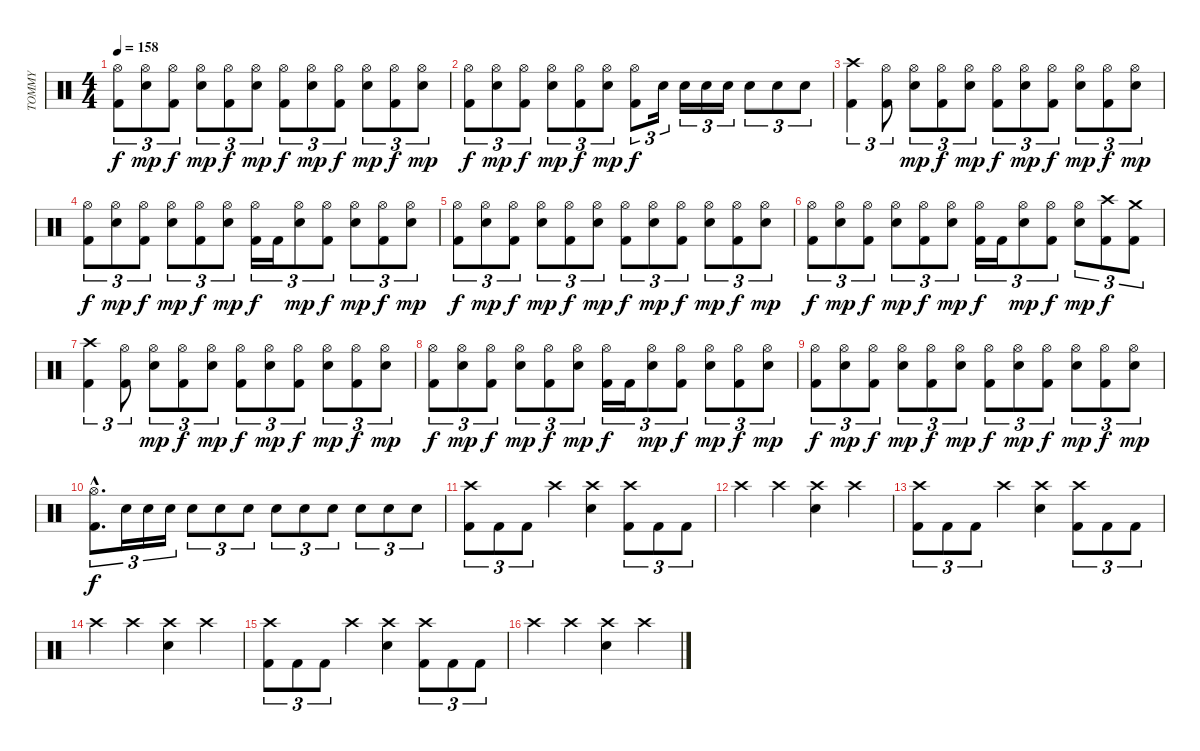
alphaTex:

\track ("TOMMY" "TOMMY") {instrument percussion}
\staff {score}
\articulation defaults
\ts (4 4)
\tempo 158
\clef neutral
\ks c
("Kick (hit) 2" "Hi-Hat (open)").8{tu (3 2) dy f} ("Snare (hit) 2" "Hi-Hat (open)").8{tu (3 2) dy mp} ("Kick (hit) 2" "Hi-Hat (open)").8{tu (3 2) dy f} ("Snare (hit) 2" "Hi-Hat (open)").8{tu (3 2) dy mp} ("Kick (hit) 2" "Hi-Hat (open)").8{tu (3 2) dy f} ("Snare (hit) 2" "Hi-Hat (open)").8{tu (3 2) dy mp} ("Kick (hit) 2" "Hi-Hat (open)").8{tu (3 2) dy f} ("Snare (hit) 2" "Hi-Hat (open)").8{tu (3 2) dy mp} ("Kick (hit) 2" "Hi-Hat (open)").8{tu (3 2) dy f} ("Snare (hit) 2" "Hi-Hat (open)").8{tu (3 2) dy mp} ("Kick (hit) 2" "Hi-Hat (open)").8{tu (3 2) dy f} ("Snare (hit) 2" "Hi-Hat (open)").8{tu (3 2) dy mp} |
("Kick (hit) 2" "Hi-Hat (open)").8{tu (3 2) dy f} ("Snare (hit) 2" "Hi-Hat (open)").8{tu (3 2) dy mp} ("Kick (hit) 2" "Hi-Hat (open)").8{tu (3 2) dy f} ("Snare (hit) 2" "Hi-Hat (open)").8{tu (3 2) dy mp} ("Kick (hit) 2" "Hi-Hat (open)").8{tu (3 2) dy f} ("Snare (hit) 2" "Hi-Hat (open)").8{tu (3 2) dy mp} ("Kick (hit) 2" "Hi-Hat (open)").8{tu (3 2) dy f} "Snare (hit) 2".16{tu (3 2)} "Snare (hit) 2".16{tu (3 2)} "Snare (hit) 2".16{tu (3 2)} "Snare (hit) 2".16{tu (3 2)} "Snare (hit) 2".8{tu (3 2)} "Snare (hit) 2".8{tu (3 2)} "Snare (hit) 2".8{tu (3 2)} |
("Kick (hit) 2" "Crash high (hit)").4{tu (3 2)} ("Kick (hit) 2" "Hi-Hat (open)").8{tu (3 2)} ("Snare (hit) 2" "Hi-Hat (open)").8{tu (3 2) dy mp} ("Kick (hit) 2" "Hi-Hat (open)").8{tu (3 2) dy f} ("Snare (hit) 2" "Hi-Hat (open)").8{tu (3 2) dy mp} ("Kick (hit) 2" "Hi-Hat (open)").8{tu (3 2) dy f} ("Snare (hit) 2" "Hi-Hat (open)").8{tu (3 2) dy mp} ("Kick (hit) 2" "Hi-Hat (open)").8{tu (3 2) dy f} ("Snare (hit) 2" "Hi-Hat (open)").8{tu (3 2) dy mp} ("Kick (hit) 2" "Hi-Hat (open)").8{tu (3 2) dy f} ("Snare (hit) 2" "Hi-Hat (open)").8{tu (3 2) dy mp} |
("Kick (hit) 2" "Hi-Hat (open)").8{tu (3 2) dy f} ("Snare (hit) 2" "Hi-Hat (open)").8{tu (3 2) dy mp} ("Kick (hit) 2" "Hi-Hat (open)").8{tu (3 2) dy f} ("Snare (hit) 2" "Hi-Hat (open)").8{tu (3 2) dy mp} ("Kick (hit) 2" "Hi-Hat (open)").8{tu (3 2) dy f} ("Snare (hit) 2" "Hi-Hat (open)").8{tu (3 2) dy mp} ("Kick (hit) 2" "Hi-Hat (open)").16{tu (3 2) dy f} "Kick (hit) 2".16{tu (3 2)} ("Snare (hit) 2" "Hi-Hat (open)").8{tu (3 2) dy mp} ("Kick (hit) 2" "Hi-Hat (open)").8{tu (3 2) dy f} ("Snare (hit) 2" "Hi-Hat (open)").8{tu (3 2) dy mp} ("Kick (hit) 2" "Hi-Hat (open)").8{tu (3 2) dy f} ("Snare (hit) 2" "Hi-Hat (open)").8{tu (3 2) dy mp} |
("Kick (hit) 2" "Hi-Hat (open)").8{tu (3 2) dy f} ("Snare (hit) 2" "Hi-Hat (open)").8{tu (3 2) dy mp} ("Kick (hit) 2" "Hi-Hat (open)").8{tu (3 2) dy f} ("Snare (hit) 2" "Hi-Hat (open)").8{tu (3 2) dy mp} ("Kick (hit) 2" "Hi-Hat (open)").8{tu (3 2) dy f} ("Snare (hit) 2" "Hi-Hat (open)").8{tu (3 2) dy mp} ("Kick (hit) 2" "Hi-Hat (open)").8{tu (3 2) dy f} ("Snare (hit) 2" "Hi-Hat (open)").8{tu (3 2) dy mp} ("Kick (hit) 2" "Hi-Hat (open)").8{tu (3 2) dy f} ("Snare (hit) 2" "Hi-Hat (open)").8{tu (3 2) dy mp} ("Kick (hit) 2" "Hi-Hat (open)").8{tu (3 2) dy f} ("Snare (hit) 2" "Hi-Hat (open)").8{tu (3 2) dy mp} |
("Kick (hit) 2" "Hi-Hat (open)").8{tu (3 2) dy f} ("Snare (hit) 2" "Hi-Hat (open)").8{tu (3 2) dy mp} ("Kick (hit) 2" "Hi-Hat (open)").8{tu (3 2) dy f} ("Snare (hit) 2" "Hi-Hat (open)").8{tu (3 2) dy mp} ("Kick (hit) 2" "Hi-Hat (open)").8{tu (3 2) dy f} ("Snare (hit) 2" "Hi-Hat (open)").8{tu (3 2) dy mp} ("Kick (hit) 2" "Hi-Hat (open)").16{tu (3 2) dy f} "Kick (hit) 2".16{tu (3 2)} ("Snare (hit) 2" "Hi-Hat (open)").8{tu (3 2) dy mp} ("Kick (hit) 2" "Hi-Hat (open)").8{tu (3 2) dy f} ("Snare (hit) 2" "Hi-Hat (open)").8{tu (3 2) dy mp} ("Kick (hit) 2" "Crash high (hit)").8{tu (3 2) dy f} ("Kick (hit) 2" "Crash medium (hit)").8{tu (3 2)} |
("Kick (hit) 2" "Crash high (hit)").4{tu (3 2)} ("Kick (hit) 2" "Hi-Hat (open)").8{tu (3 2)} ("Snare (hit) 2" "Hi-Hat (open)").8{tu (3 2) dy mp} ("Kick (hit) 2" "Hi-Hat (open)").8{tu (3 2) dy f} ("Snare (hit) 2" "Hi-Hat (open)").8{tu (3 2) dy mp} ("Kick (hit) 2" "Hi-Hat (open)").8{tu (3 2) dy f} ("Snare (hit) 2" "Hi-Hat (open)").8{tu (3 2) dy mp} ("Kick (hit) 2" "Hi-Hat (open)").8{tu (3 2) dy f} ("Snare (hit) 2" "Hi-Hat (open)").8{tu (3 2) dy mp} ("Kick (hit) 2" "Hi-Hat (open)").8{tu (3 2) dy f} ("Snare (hit) 2" "Hi-Hat (open)").8{tu (3 2) dy mp} |
("Kick (hit) 2" "Hi-Hat (open)").8{tu (3 2) dy f} ("Snare (hit) 2" "Hi-Hat (open)").8{tu (3 2) dy mp} ("Kick (hit) 2" "Hi-Hat (open)").8{tu (3 2) dy f} ("Snare (hit) 2" "Hi-Hat (open)").8{tu (3 2) dy mp} ("Kick (hit) 2" "Hi-Hat (open)").8{tu (3 2) dy f} ("Snare (hit) 2" "Hi-Hat (open)").8{tu (3 2) dy mp} ("Kick (hit) 2" "Hi-Hat (open)").16{tu (3 2) dy f} "Kick (hit) 2".16{tu (3 2)} ("Snare (hit) 2" "Hi-Hat (open)").8{tu (3 2) dy mp} ("Kick (hit) 2" "Hi-Hat (open)").8{tu (3 2) dy f} ("Snare (hit) 2" "Hi-Hat (open)").8{tu (3 2) dy mp} ("Kick (hit) 2" "Hi-Hat (open)").8{tu (3 2) dy f} ("Snare (hit) 2" "Hi-Hat (open)").8{tu (3 2) dy mp} |
("Kick (hit) 2" "Hi-Hat (open)").8{tu (3 2) dy f} ("Snare (hit) 2" "Hi-Hat (open)").8{tu (3 2) dy mp} ("Kick (hit) 2" "Hi-Hat (open)").8{tu (3 2) dy f} ("Snare (hit) 2" "Hi-Hat (open)").8{tu (3 2) dy mp} ("Kick (hit) 2" "Hi-Hat (open)").8{tu (3 2) dy f} ("Snare (hit) 2" "Hi-Hat (open)").8{tu (3 2) dy mp} ("Kick (hit) 2" "Hi-Hat (open)").8{tu (3 2) dy f} ("Snare (hit) 2" "Hi-Hat (open)").8{tu (3 2) dy mp} ("Kick (hit) 2" "Hi-Hat (open)").8{tu (3 2) dy f} ("Snare (hit) 2" "Hi-Hat (open)").8{tu (3 2) dy mp} ("Kick (hit) 2" "Hi-Hat (open)").8{tu (3 2) dy f} ("Snare (hit) 2" "Hi-Hat (open)").8{tu (3 2) dy mp} |
("Kick (hit) 2"{hac} "Hi-Hat (open)"{hac}).8{d tu (3 2) dy f} "Snare (hit) 2".16{tu (3 2)} "Snare (hit) 2".16{tu (3 2)} "Snare (hit) 2".16{tu (3 2)} "Snare (hit) 2".8{tu (3 2)} "Snare (hit) 2".8{tu (3 2)} "Snare (hit) 2".8{tu (3 2)} "Snare (hit) 2".8{tu (3 2)} "Snare (hit) 2".8{tu (3 2)} "Snare (hit) 2".8{tu (3 2)} "Snare (hit) 2".8{tu (3 2)} "Snare (hit) 2".8{tu (3 2)} "Snare (hit) 2".8{tu (3 2)} |
("Kick (hit) 2" "Crash high (hit)").8{tu (3 2)} "Kick (hit) 2".8{tu (3 2)} "Kick (hit) 2".8{tu (3 2)} "Crash high (hit)".4 ("Snare (hit) 2" "Crash high (hit)").4 ("Kick (hit) 2" "Crash high (hit)").8{tu (3 2)} "Kick (hit) 2".8{tu (3 2)} "Kick (hit) 2".8{tu (3 2)} |
"Crash high (hit)".4 "Crash high (hit)".4 ("Snare (hit) 2" "Crash high (hit)").4 "Crash high (hit)".4 |
("Kick (hit) 2" "Crash high (hit)").8{tu (3 2)} "Kick (hit) 2".8{tu (3 2)} "Kick (hit) 2".8{tu (3 2)} "Crash high (hit)".4 ("Snare (hit) 2" "Crash high (hit)").4 ("Kick (hit) 2" "Crash high (hit)").8{tu (3 2)} "Kick (hit) 2".8{tu (3 2)} "Kick (hit) 2".8{tu (3 2)} |
"Crash high (hit)".4 "Crash high (hit)".4 ("Snare (hit) 2" "Crash high (hit)").4 "Crash high (hit)".4 |
("Kick (hit) 2" "Crash high (hit)").8{tu (3 2)} "Kick (hit) 2".8{tu (3 2)} "Kick (hit) 2".8{tu (3 2)} "Crash high (hit)".4 ("Snare (hit) 2" "Crash high (hit)").4 ("Kick (hit) 2" "Crash high (hit)").8{tu (3 2)} "Kick (hit) 2".8{tu (3 2)} "Kick (hit) 2".8{tu (3 2)} |
"Crash high (hit)".4 "Crash high (hit)".4 ("Snare (hit) 2" "Crash high (hit)").4 "Crash high (hit)".4
